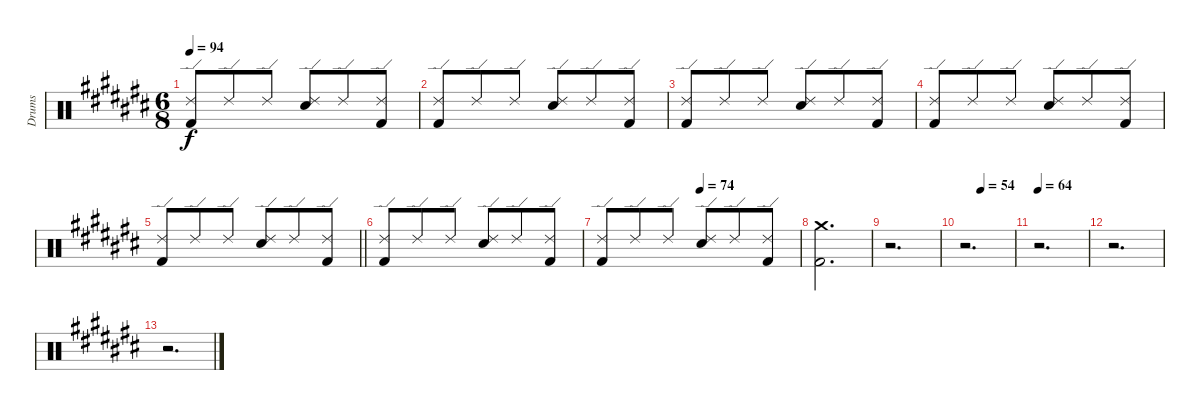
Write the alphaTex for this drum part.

\track ("Drums" "Drums") {instrument percussion}
\staff {score}
\articulation defaults
\ts (6 8)
\tempo 94
\clef neutral
\ks c#
("Ride (edge) 2" "Kick (hit) 2").8{dy f} "Ride (edge) 2".8 "Ride (edge) 2".8 ("Ride (edge) 2" "Snare (hit) 2").8 "Ride (edge) 2".8 ("Ride (edge) 2" "Kick (hit) 2").8 |
("Ride (edge) 2" "Kick (hit) 2").8 "Ride (edge) 2".8 "Ride (edge) 2".8 ("Ride (edge) 2" "Snare (hit) 2").8 "Ride (edge) 2".8 ("Ride (edge) 2" "Kick (hit) 2").8 |
("Ride (edge) 2" "Kick (hit) 2").8 "Ride (edge) 2".8 "Ride (edge) 2".8 ("Ride (edge) 2" "Snare (hit) 2").8 "Ride (edge) 2".8 ("Ride (edge) 2" "Kick (hit) 2").8 |
("Ride (edge) 2" "Kick (hit) 2").8 "Ride (edge) 2".8 "Ride (edge) 2".8 ("Ride (edge) 2" "Snare (hit) 2").8 "Ride (edge) 2".8 ("Ride (edge) 2" "Kick (hit) 2").8 |
\barLineRight lightlight
("Ride (edge) 2" "Kick (hit) 2").8 "Ride (edge) 2".8 "Ride (edge) 2".8 ("Ride (edge) 2" "Snare (hit) 2").8 "Ride (edge) 2".8 ("Ride (edge) 2" "Kick (hit) 2").8 |
("Ride (edge) 2" "Kick (hit) 2").8 "Ride (edge) 2".8 "Ride (edge) 2".8 ("Ride (edge) 2" "Snare (hit) 2").8 "Ride (edge) 2".8 ("Ride (edge) 2" "Kick (hit) 2").8 |
\tempo (74 0.5)
("Ride (edge) 2" "Kick (hit) 2").8 "Ride (edge) 2".8 "Ride (edge) 2".8 ("Ride (edge) 2" "Snare (hit) 2").8 "Ride (edge) 2".8 ("Ride (edge) 2" "Kick (hit) 2").8 |
("Crash medium (hit)" "Kick (hit) 2").2{d} |
r.2{d} |
\tempo (54 0.3333333333333333)
r.2{d} |
\tempo 64
r.2{d} |
r.2{d} |
r.2{d}
